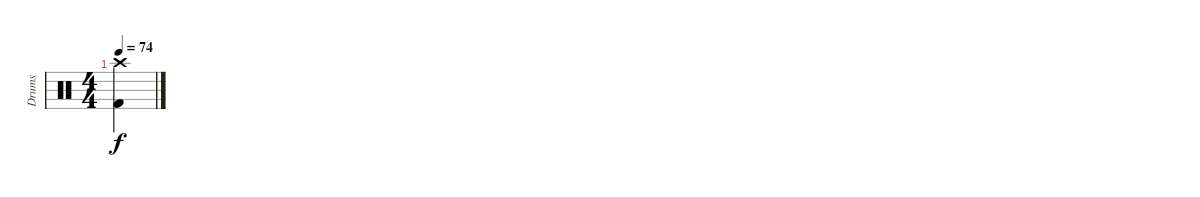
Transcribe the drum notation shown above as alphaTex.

\track ("Drums" "Drums") {instrument percussion}
\staff {score}
\articulation defaults
\ts (4 4)
\tempo 74
\clef neutral
\ks c
("Crash high (hit)" "Kick (hit) 2").4{dy f}
